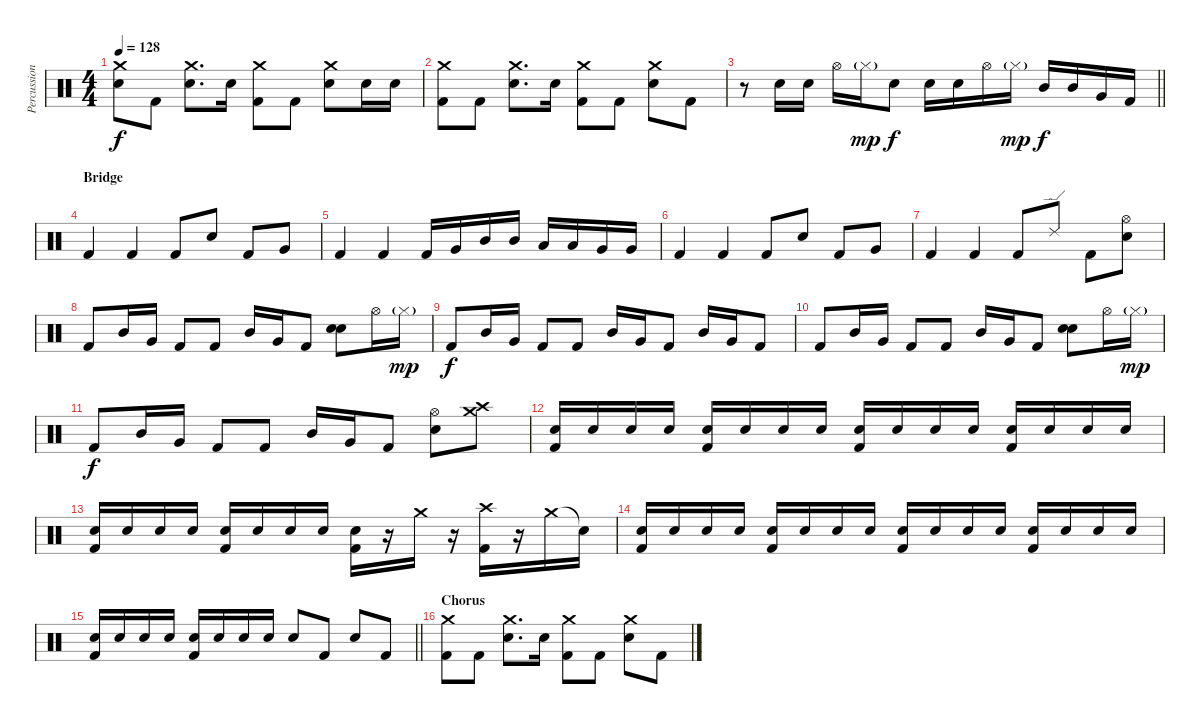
\track ("Percussion" "Percussion") {instrument percussion}
\staff {score}
\articulation defaults
\ts (4 4)
\tempo 128
\clef neutral
\ks c
("Crash medium (hit)" "Snare (hit)"{t}).8{dy f} "Kick (hit) 2".8 ("Crash medium (hit)" "Snare (hit) 2").8{d} "Snare (hit) 2".16 ("Crash medium (hit)" "Kick (hit) 2").8 "Kick (hit) 2".8 ("Crash medium (hit)" "Snare (hit) 2").8 "Snare (hit) 2".16 "Snare (hit) 2".16 |
("Crash medium (hit)" "Kick (hit) 2").8 "Kick (hit) 2".8 ("Crash medium (hit)" "Snare (hit) 2").8{d} "Snare (hit) 2".16 ("Crash medium (hit)" "Kick (hit) 2").8 "Kick (hit) 2".8 ("Crash medium (hit)" "Snare (hit) 2").8 "Kick (hit) 2".8 |
\barLineRight lightlight
r.8 "Snare (hit) 2".16 "Snare (hit) 2".16 "Hi-Hat (open)".16 "Hi-Hat (closed)"{g}.16{dy mp} "Snare (hit) 2".8{dy f} "Snare (hit) 2".16 "Snare (hit) 2".16 "Hi-Hat (open)".16 "Hi-Hat (closed)"{g}.16{dy mp} "Mid Tom (hit)".16{dy f} "Mid Tom (hit)".16 "Very Low Tom (hit)".16 "Kick (hit) 2".16 |
\section ("" "Bridge")
"Kick (hit) 2".4 "Kick (hit) 2".4 "Kick (hit) 2".8 "Snare (hit) 2".8 "Kick (hit) 2".8 "Very Low Tom (hit)".8 |
"Kick (hit) 2".4 "Kick (hit) 2".4 "Kick (hit) 2".16 "Very Low Tom (hit)".16 "Mid Tom (hit)".16 "Mid Tom (hit)".16 "Low Tom (hit)".16 "Low Tom (hit)".16 "Very Low Tom (hit)".16 "Very Low Tom (hit)".16 |
"Kick (hit) 2".4 "Kick (hit) 2".4 "Kick (hit) 2".8 "Snare (hit) 2".8 "Kick (hit) 2".8 "Very Low Tom (hit)".8 |
"Kick (hit) 2".4 "Kick (hit) 2".4 "Kick (hit) 2".8 "Ride (edge) 2".8 "Kick (hit) 2".8 ("Hi-Hat (open)" "Snare (hit) 2").8 |
"Kick (hit) 2".8 "Mid Tom (hit)".16 "Very Low Tom (hit)".16 "Kick (hit) 2".8 "Kick (hit) 2".8 "Mid Tom (hit)".16 "Very Low Tom (hit)".16 "Kick (hit) 2".8 ("Snare (hit) 2" "Snare (hit) 2").8 "Hi-Hat (open)".16 "Hi-Hat (closed)"{g}.16{dy mp} |
"Kick (hit) 2".8{dy f} "Mid Tom (hit)".16 "Very Low Tom (hit)".16 "Kick (hit) 2".8 "Kick (hit) 2".8 "Mid Tom (hit)".16 "Very Low Tom (hit)".16 "Kick (hit) 2".8 "Mid Tom (hit)".16 "Very Low Tom (hit)".16 "Kick (hit) 2".8 |
"Kick (hit) 2".8 "Mid Tom (hit)".16 "Very Low Tom (hit)".16 "Kick (hit) 2".8 "Kick (hit) 2".8 "Mid Tom (hit)".16 "Very Low Tom (hit)".16 "Kick (hit) 2".8 ("Snare (hit) 2" "Snare (hit) 2").8 "Hi-Hat (open)".16 "Hi-Hat (closed)"{g}.16{dy mp} |
"Kick (hit) 2".8{dy f} "Mid Tom (hit)".16 "Very Low Tom (hit)".16 "Kick (hit) 2".8 "Kick (hit) 2".8 "Mid Tom (hit)".16 "Very Low Tom (hit)".16 "Kick (hit) 2".8 ("Hi-Hat (open)" "Snare (hit) 2").8 ("Crash medium (hit)" "Crash high (hit)").8 |
("Snare (hit) 2" "Kick (hit) 2").16 "Snare (hit) 2".16 "Snare (hit) 2".16 "Snare (hit) 2".16 ("Snare (hit) 2" "Kick (hit) 2").16 "Snare (hit) 2".16 "Snare (hit) 2".16 "Snare (hit) 2".16 ("Snare (hit) 2" "Kick (hit) 2").16 "Snare (hit) 2".16 "Snare (hit) 2".16 "Snare (hit) 2".16 ("Snare (hit) 2" "Kick (hit) 2").16 "Snare (hit) 2".16 "Snare (hit) 2".16 "Snare (hit) 2".16 |
("Snare (hit) 2" "Kick (hit) 2").16 "Snare (hit) 2".16 "Snare (hit) 2".16 "Snare (hit) 2".16 ("Snare (hit) 2" "Kick (hit) 2").16 "Snare (hit) 2".16 "Snare (hit) 2".16 "Snare (hit) 2".16 ("Snare (hit) 2" "Kick (hit) 2").16 r.16 "Crash medium (hit)".16 r.16 ("Crash high (hit)" "Kick (hit) 2").16 r.16 "Crash medium (hit)".16 "Snare (hit)"{t}.16 |
("Snare (hit) 2" "Kick (hit) 2").16 "Snare (hit) 2".16 "Snare (hit) 2".16 "Snare (hit) 2".16 ("Snare (hit) 2" "Kick (hit) 2").16 "Snare (hit) 2".16 "Snare (hit) 2".16 "Snare (hit) 2".16 ("Snare (hit) 2" "Kick (hit) 2").16 "Snare (hit) 2".16 "Snare (hit) 2".16 "Snare (hit) 2".16 ("Snare (hit) 2" "Kick (hit) 2").16 "Snare (hit) 2".16 "Snare (hit) 2".16 "Snare (hit) 2".16 |
\barLineRight lightlight
("Snare (hit) 2" "Kick (hit) 2").16 "Snare (hit) 2".16 "Snare (hit) 2".16 "Snare (hit) 2".16 ("Snare (hit) 2" "Kick (hit) 2").16 "Snare (hit) 2".16 "Snare (hit) 2".16 "Snare (hit) 2".16 "Snare (hit) 2".8 "Kick (hit) 2".8 "Snare (hit) 2".8 "Kick (hit) 2".8 |
\section ("" "Chorus")
("Crash medium (hit)" "Kick (hit) 2").8 "Kick (hit) 2".8 ("Crash medium (hit)" "Snare (hit) 2").8{d} "Snare (hit) 2".16 ("Crash medium (hit)" "Kick (hit) 2").8 "Kick (hit) 2".8 ("Crash medium (hit)" "Snare (hit) 2").8 "Kick (hit) 2".8
